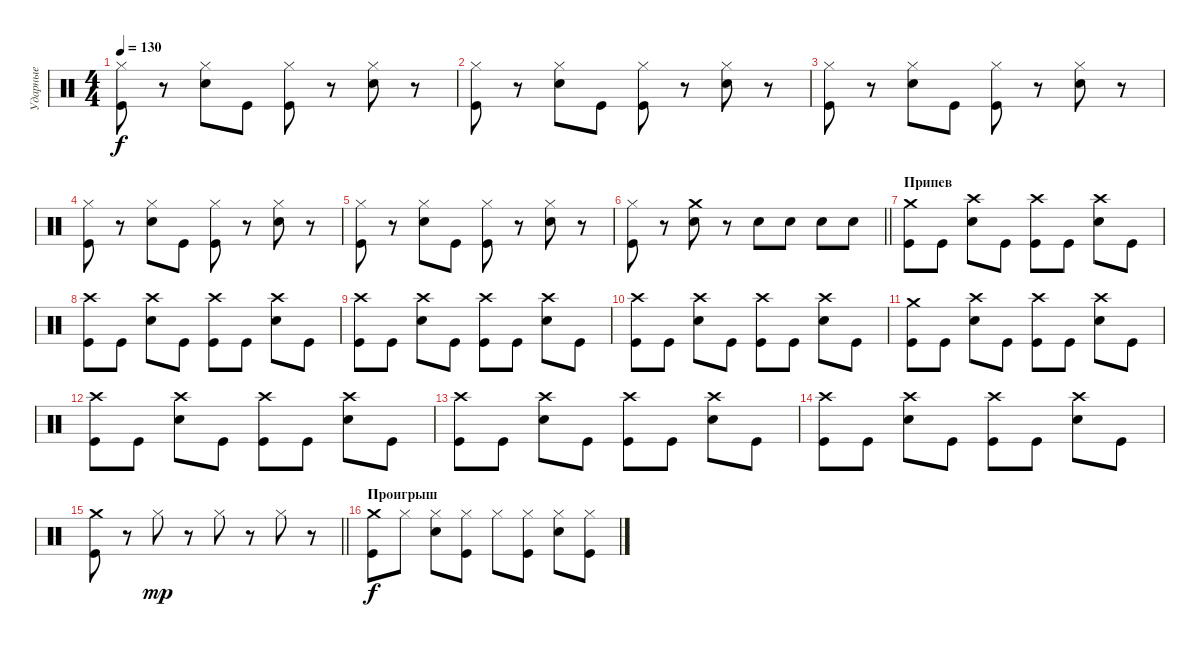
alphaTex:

\track ("Ударные" "Ударные") {instrument percussion}
\staff {score}
\articulation defaults
\ts (4 4)
\tempo 130
\clef neutral
\ks c
("Hi-Hat (closed)" "Kick (hit)").8{dy f} r.8 ("Hi-Hat (closed)" "Electric Snare (hit)").8 "Kick (hit)".8 ("Hi-Hat (closed)" "Kick (hit)").8 r.8 ("Hi-Hat (closed)" "Electric Snare (hit)").8 r.8 |
("Hi-Hat (closed)" "Kick (hit)").8 r.8 ("Hi-Hat (closed)" "Electric Snare (hit)").8 "Kick (hit)".8 ("Hi-Hat (closed)" "Kick (hit)").8 r.8 ("Hi-Hat (closed)" "Electric Snare (hit)").8 r.8 |
("Hi-Hat (closed)" "Kick (hit)").8 r.8 ("Hi-Hat (closed)" "Electric Snare (hit)").8 "Kick (hit)".8 ("Hi-Hat (closed)" "Kick (hit)").8 r.8 ("Hi-Hat (closed)" "Electric Snare (hit)").8 r.8 |
("Hi-Hat (closed)" "Kick (hit)").8 r.8 ("Hi-Hat (closed)" "Electric Snare (hit)").8 "Kick (hit)".8 ("Hi-Hat (closed)" "Kick (hit)").8 r.8 ("Hi-Hat (closed)" "Electric Snare (hit)").8 r.8 |
("Hi-Hat (closed)" "Kick (hit)").8 r.8 ("Hi-Hat (closed)" "Electric Snare (hit)").8 "Kick (hit)".8 ("Hi-Hat (closed)" "Kick (hit)").8 r.8 ("Hi-Hat (closed)" "Electric Snare (hit)").8 r.8 |
\barLineRight lightlight
("Hi-Hat (closed)" "Kick (hit)").8 r.8 ("Crash medium (hit)" "Electric Snare (hit)").8 r.8 "Electric Snare (hit)".8 "Electric Snare (hit)".8 "Electric Snare (hit)".8 "Electric Snare (hit)".8 |
\section ("" "Припев")
("Kick (hit)" "Crash medium (hit)").8 "Kick (hit)".8 ("Electric Snare (hit)" "Crash high (hit)").8 "Kick (hit)".8 ("Kick (hit)" "Crash high (hit)").8 "Kick (hit)".8 ("Electric Snare (hit)" "Crash high (hit)").8 "Kick (hit)".8 |
("Kick (hit)" "Crash high (hit)").8 "Kick (hit)".8 ("Electric Snare (hit)" "Crash high (hit)").8 "Kick (hit)".8 ("Kick (hit)" "Crash high (hit)").8 "Kick (hit)".8 ("Electric Snare (hit)" "Crash high (hit)").8 "Kick (hit)".8 |
("Kick (hit)" "Crash high (hit)").8 "Kick (hit)".8 ("Electric Snare (hit)" "Crash high (hit)").8 "Kick (hit)".8 ("Kick (hit)" "Crash high (hit)").8 "Kick (hit)".8 ("Electric Snare (hit)" "Crash high (hit)").8 "Kick (hit)".8 |
("Kick (hit)" "Crash high (hit)").8 "Kick (hit)".8 ("Electric Snare (hit)" "Crash high (hit)").8 "Kick (hit)".8 ("Kick (hit)" "Crash high (hit)").8 "Kick (hit)".8 ("Electric Snare (hit)" "Crash high (hit)").8 "Kick (hit)".8 |
("Kick (hit)" "Crash medium (hit)").8 "Kick (hit)".8 ("Electric Snare (hit)" "Crash high (hit)").8 "Kick (hit)".8 ("Kick (hit)" "Crash high (hit)").8 "Kick (hit)".8 ("Electric Snare (hit)" "Crash high (hit)").8 "Kick (hit)".8 |
("Kick (hit)" "Crash high (hit)").8 "Kick (hit)".8 ("Electric Snare (hit)" "Crash high (hit)").8 "Kick (hit)".8 ("Kick (hit)" "Crash high (hit)").8 "Kick (hit)".8 ("Electric Snare (hit)" "Crash high (hit)").8 "Kick (hit)".8 |
("Kick (hit)" "Crash high (hit)").8 "Kick (hit)".8 ("Electric Snare (hit)" "Crash high (hit)").8 "Kick (hit)".8 ("Kick (hit)" "Crash high (hit)").8 "Kick (hit)".8 ("Electric Snare (hit)" "Crash high (hit)").8 "Kick (hit)".8 |
("Kick (hit)" "Crash high (hit)").8 "Kick (hit)".8 ("Electric Snare (hit)" "Crash high (hit)").8 "Kick (hit)".8 ("Kick (hit)" "Crash high (hit)").8 "Kick (hit)".8 ("Electric Snare (hit)" "Crash high (hit)").8 "Kick (hit)".8 |
\barLineRight lightlight
("Crash medium (hit)" "Kick (hit)").8 r.8 "Hi-Hat (closed)".8{dy mp} r.8 "Hi-Hat (closed)".8 r.8 "Hi-Hat (closed)".8 r.8 |
\section ("" "Проигрыш")
("Kick (hit)" "Crash medium (hit)").8{dy f} "Hi-Hat (closed)".8 ("Electric Snare (hit)" "Hi-Hat (closed)").8 ("Kick (hit)" "Hi-Hat (closed)").8 "Hi-Hat (closed)".8 ("Kick (hit)" "Hi-Hat (closed)").8 ("Electric Snare (hit)" "Hi-Hat (closed)").8 ("Kick (hit)" "Hi-Hat (closed)").8
